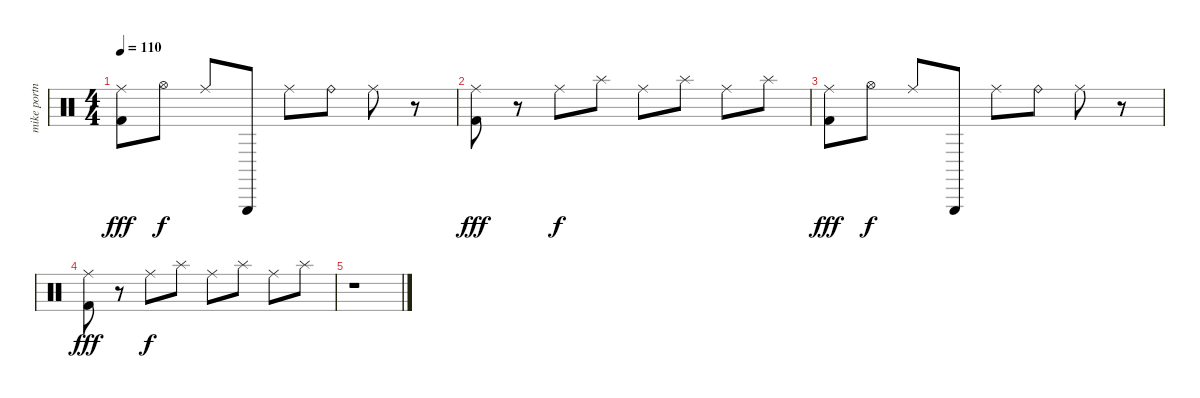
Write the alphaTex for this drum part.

\track ("mike portnoy" "mike portn") {instrument percussion}
\staff {score}
\articulation defaults
\ts (4 4)
\tempo 110
\clef neutral
\ks c
("Ride (middle)" "Kick (hit) 2").8{dy fff} "Hi-Hat (open)".8{dy f} "Ride (middle)".8 "Triangle (hit)".8 "Ride (middle)".8 "Ride (bell)".8 "Ride (middle)".8 r.8 |
("Ride (middle)" "Kick (hit) 2").8{dy fff} r.8 "Ride (middle)".8{dy f} "Splash (hit)".8 "Ride (middle)".8 "Splash (hit)".8 "Ride (middle)".8 "Splash (hit)".8 |
("Ride (middle)" "Kick (hit) 2").8{dy fff} "Hi-Hat (open)".8{dy f} "Ride (middle)".8 "Triangle (hit)".8 "Ride (middle)".8 "Ride (bell)".8 "Ride (middle)".8 r.8 |
("Ride (middle)" "Kick (hit) 2").8{dy fff} r.8 "Ride (middle)".8{dy f} "Splash (hit)".8 "Ride (middle)".8 "Splash (hit)".8 "Ride (middle)".8 "Splash (hit)".8 |
r.1
